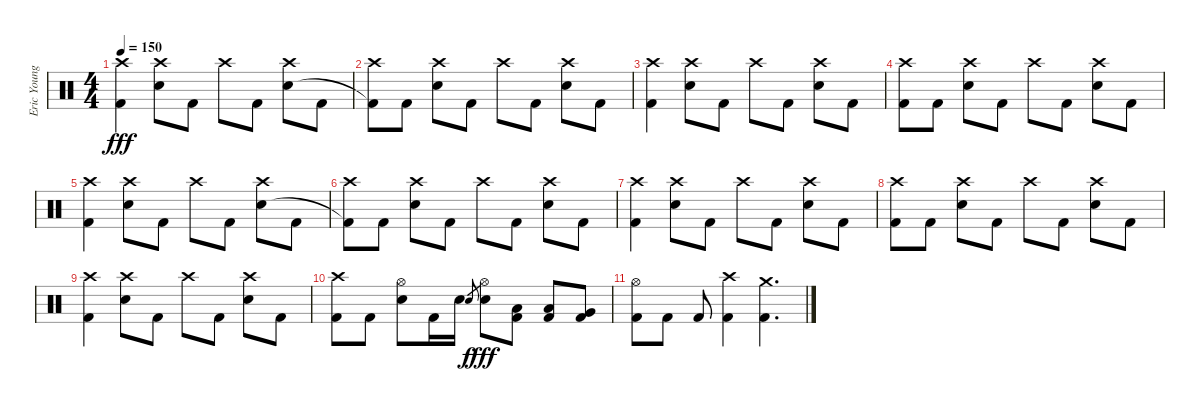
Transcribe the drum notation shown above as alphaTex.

\track ("Eric Young" "Eric Young") {instrument percussion}
\staff {score}
\articulation defaults
\ts (4 4)
\tempo 150
\clef neutral
\ks c
("Crash high (hit)" "Kick (hit) 2").4{dy fff} ("Crash high (hit)" "Electric Snare (hit)").8 "Kick (hit) 2".8 "Crash high (hit)".8 "Kick (hit) 2".8 ("Crash high (hit)" "Electric Snare (hit)").8 "Kick (hit) 2".8 |
("Crash high (hit)" "Kick (hit) 2"{t}).8 "Kick (hit) 2".8 ("Crash high (hit)" "Electric Snare (hit)").8 "Kick (hit) 2".8 "Crash high (hit)".8 "Kick (hit) 2".8 ("Crash high (hit)" "Electric Snare (hit)").8 "Kick (hit) 2".8 |
("Crash high (hit)" "Kick (hit) 2").4 ("Crash high (hit)" "Electric Snare (hit)").8 "Kick (hit) 2".8 "Crash high (hit)".8 "Kick (hit) 2".8 ("Crash high (hit)" "Electric Snare (hit)").8 "Kick (hit) 2".8 |
("Crash high (hit)" "Kick (hit) 2").8 "Kick (hit) 2".8 ("Crash high (hit)" "Electric Snare (hit)").8 "Kick (hit) 2".8 "Crash high (hit)".8 "Kick (hit) 2".8 ("Crash high (hit)" "Electric Snare (hit)").8 "Kick (hit) 2".8 |
("Crash high (hit)" "Kick (hit) 2").4 ("Crash high (hit)" "Electric Snare (hit)").8 "Kick (hit) 2".8 "Crash high (hit)".8 "Kick (hit) 2".8 ("Crash high (hit)" "Electric Snare (hit)").8 "Kick (hit) 2".8 |
("Crash high (hit)" "Kick (hit) 2"{t}).8 "Kick (hit) 2".8 ("Crash high (hit)" "Electric Snare (hit)").8 "Kick (hit) 2".8 "Crash high (hit)".8 "Kick (hit) 2".8 ("Crash high (hit)" "Electric Snare (hit)").8 "Kick (hit) 2".8 |
("Crash high (hit)" "Kick (hit) 2").4 ("Crash high (hit)" "Electric Snare (hit)").8 "Kick (hit) 2".8 "Crash high (hit)".8 "Kick (hit) 2".8 ("Crash high (hit)" "Electric Snare (hit)").8 "Kick (hit) 2".8 |
("Crash high (hit)" "Kick (hit) 2").8 "Kick (hit) 2".8 ("Crash high (hit)" "Electric Snare (hit)").8 "Kick (hit) 2".8 "Crash high (hit)".8 "Kick (hit) 2".8 ("Crash high (hit)" "Electric Snare (hit)").8 "Kick (hit) 2".8 |
("Crash high (hit)" "Kick (hit) 2").4 ("Crash high (hit)" "Electric Snare (hit)").8 "Kick (hit) 2".8 "Crash high (hit)".8 "Kick (hit) 2".8 ("Crash high (hit)" "Electric Snare (hit)").8 "Kick (hit) 2".8 |
("Crash high (hit)" "Kick (hit) 2").8 "Kick (hit) 2".8 ("Hi-Hat (open)" "Electric Snare (hit)").8 "Kick (hit) 2".16 "Electric Snare (hit)".16 "Electric Snare (hit)".8{gr dy f} ("Hi-Hat (open)" "Electric Snare (hit)").8{dy fff} ("Low Tom (hit)" "Kick (hit) 2").8 ("Low Tom (hit)" "Kick (hit) 2").8 ("Very Low Tom (hit)" "Kick (hit) 2").8 |
("Hi-Hat (open)" "Kick (hit) 2").8 "Kick (hit) 2".8 "Kick (hit) 2".8 ("Crash high (hit)" "Kick (hit) 2").4 ("Crash medium (hit)" "Kick (hit) 2").4{d}
